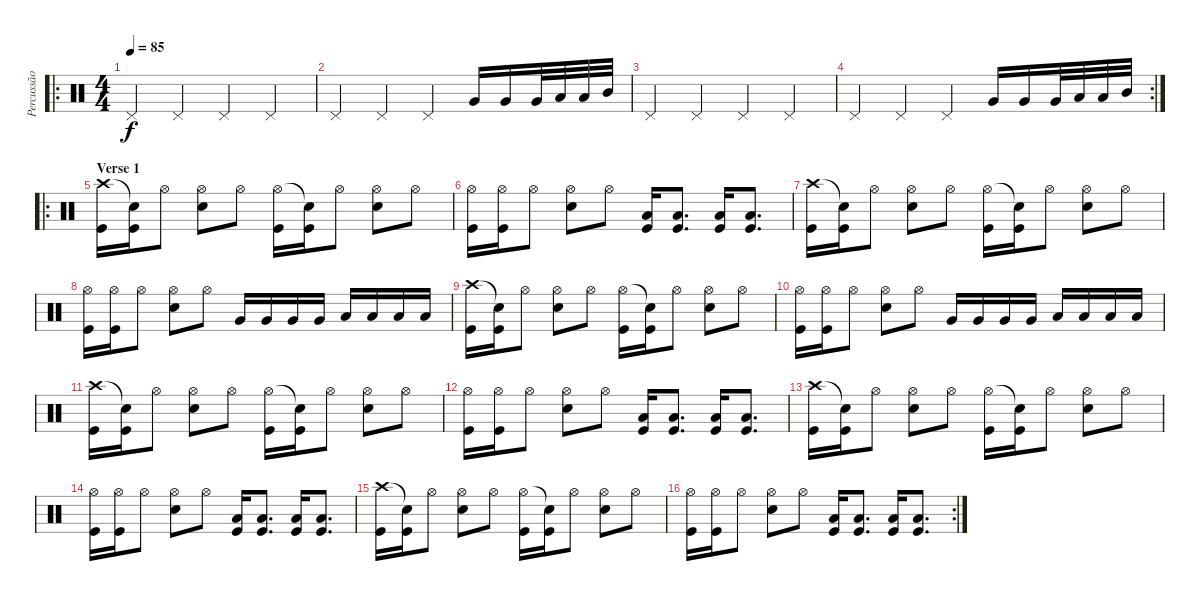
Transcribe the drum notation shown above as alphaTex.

\track ("Percussão" "Percussão") {instrument percussion}
\staff {score}
\articulation defaults
\ro
\ts (4 4)
\tempo 85
\clef neutral
\ks c "Pedal Hi-Hat (hit)".4{dy f} "Pedal Hi-Hat (hit)".4 "Pedal Hi-Hat (hit)".4 "Pedal Hi-Hat (hit)".4
|
"Pedal Hi-Hat (hit)".4 "Pedal Hi-Hat (hit)".4 "Pedal Hi-Hat (hit)".4 "Very Low Tom (hit)".16 "Very Low Tom (hit)".16 "Very Low Tom (hit)".32 "Low Floor Tom (hit)".32 "Low Tom (hit)".32 "Mid Tom (hit)".32 |
"Pedal Hi-Hat (hit)".4 "Pedal Hi-Hat (hit)".4 "Pedal Hi-Hat (hit)".4 "Pedal Hi-Hat (hit)".4 |
\rc 2 "Pedal Hi-Hat (hit)".4 "Pedal Hi-Hat (hit)".4 "Pedal Hi-Hat (hit)".4 "Very Low Tom (hit)".16 "Very Low Tom (hit)".16 "Very Low Tom (hit)".32 "Low Floor Tom (hit)".32 "Low Tom (hit)".32 "Mid Tom (hit)".32
|
\ro
\section ("" "Verse 1")
("Crash high (hit)" "Kick (hit)").16 ("Snare (hit)"{t} "Kick (hit)").16 "Hi-Hat (open)".8 ("Hi-Hat (open)" "Snare (hit) 2").8 "Hi-Hat (open)".8 ("Hi-Hat (open)" "Kick (hit)").16 ("Snare (hit)"{t} "Kick (hit)").16 "Hi-Hat (open)".8 ("Hi-Hat (open)" "Snare (hit) 2").8 "Hi-Hat (open)".8 |
("Hi-Hat (open)" "Kick (hit)").16 ("Hi-Hat (open)" "Kick (hit)").16 "Hi-Hat (open)".8 ("Hi-Hat (open)" "Snare (hit) 2").8 "Hi-Hat (open)".8 ("Low Floor Tom (hit)" "Kick (hit)").16{bd 480} ("Low Floor Tom (hit)" "Kick (hit)").8{d bd 480} ("Low Floor Tom (hit)" "Kick (hit)").16{bd 480} ("Low Floor Tom (hit)" "Kick (hit)").8{d bd 480} |
("Crash high (hit)" "Kick (hit)").16 ("Snare (hit)"{t} "Kick (hit)").16 "Hi-Hat (open)".8 ("Hi-Hat (open)" "Snare (hit) 2").8 "Hi-Hat (open)".8 ("Hi-Hat (open)" "Kick (hit)").16 ("Snare (hit)"{t} "Kick (hit)").16 "Hi-Hat (open)".8 ("Hi-Hat (open)" "Snare (hit) 2").8 "Hi-Hat (open)".8 |
("Hi-Hat (open)" "Kick (hit)").16 ("Hi-Hat (open)" "Kick (hit)").16 "Hi-Hat (open)".8 ("Hi-Hat (open)" "Snare (hit) 2").8 "Hi-Hat (open)".8 "Very Low Tom (hit)".16 "Very Low Tom (hit)".16 "Very Low Tom (hit)".16 "Very Low Tom (hit)".16 "Low Floor Tom (hit)".16 "Low Floor Tom (hit)".16 "Low Floor Tom (hit)".16 "Low Floor Tom (hit)".16 |
("Crash high (hit)" "Kick (hit)").16 ("Snare (hit)"{t} "Kick (hit)").16 "Hi-Hat (open)".8 ("Hi-Hat (open)" "Snare (hit) 2").8 "Hi-Hat (open)".8 ("Hi-Hat (open)" "Kick (hit)").16 ("Snare (hit)"{t} "Kick (hit)").16 "Hi-Hat (open)".8 ("Hi-Hat (open)" "Snare (hit) 2").8 "Hi-Hat (open)".8 |
("Hi-Hat (open)" "Kick (hit)").16 ("Hi-Hat (open)" "Kick (hit)").16 "Hi-Hat (open)".8 ("Hi-Hat (open)" "Snare (hit) 2").8 "Hi-Hat (open)".8 "Very Low Tom (hit)".16 "Very Low Tom (hit)".16 "Very Low Tom (hit)".16 "Very Low Tom (hit)".16 "Low Floor Tom (hit)".16 "Low Floor Tom (hit)".16 "Low Floor Tom (hit)".16 "Low Floor Tom (hit)".16 |
("Crash high (hit)" "Kick (hit)").16 ("Snare (hit)"{t} "Kick (hit)").16 "Hi-Hat (open)".8 ("Hi-Hat (open)" "Snare (hit) 2").8 "Hi-Hat (open)".8 ("Hi-Hat (open)" "Kick (hit)").16 ("Snare (hit)"{t} "Kick (hit)").16 "Hi-Hat (open)".8 ("Hi-Hat (open)" "Snare (hit) 2").8 "Hi-Hat (open)".8 |
("Hi-Hat (open)" "Kick (hit)").16 ("Hi-Hat (open)" "Kick (hit)").16 "Hi-Hat (open)".8 ("Hi-Hat (open)" "Snare (hit) 2").8 "Hi-Hat (open)".8 ("Low Floor Tom (hit)" "Kick (hit)").16{bd 480} ("Low Floor Tom (hit)" "Kick (hit)").8{d bd 480} ("Low Floor Tom (hit)" "Kick (hit)").16{bd 480} ("Low Floor Tom (hit)" "Kick (hit)").8{d bd 480} |
("Crash high (hit)" "Kick (hit)").16 ("Snare (hit)"{t} "Kick (hit)").16 "Hi-Hat (open)".8 ("Hi-Hat (open)" "Snare (hit) 2").8 "Hi-Hat (open)".8 ("Hi-Hat (open)" "Kick (hit)").16 ("Snare (hit)"{t} "Kick (hit)").16 "Hi-Hat (open)".8 ("Hi-Hat (open)" "Snare (hit) 2").8 "Hi-Hat (open)".8 |
("Hi-Hat (open)" "Kick (hit)").16 ("Hi-Hat (open)" "Kick (hit)").16 "Hi-Hat (open)".8 ("Hi-Hat (open)" "Snare (hit) 2").8 "Hi-Hat (open)".8 ("Low Floor Tom (hit)" "Kick (hit)").16{bd 480} ("Low Floor Tom (hit)" "Kick (hit)").8{d bd 480} ("Low Floor Tom (hit)" "Kick (hit)").16{bd 480} ("Low Floor Tom (hit)" "Kick (hit)").8{d bd 480} |
("Crash high (hit)" "Kick (hit)").16 ("Snare (hit)"{t} "Kick (hit)").16 "Hi-Hat (open)".8 ("Hi-Hat (open)" "Snare (hit) 2").8 "Hi-Hat (open)".8 ("Hi-Hat (open)" "Kick (hit)").16 ("Snare (hit)"{t} "Kick (hit)").16 "Hi-Hat (open)".8 ("Hi-Hat (open)" "Snare (hit) 2").8 "Hi-Hat (open)".8 |
\rc 2
("Hi-Hat (open)" "Kick (hit)").16 ("Hi-Hat (open)" "Kick (hit)").16 "Hi-Hat (open)".8 ("Hi-Hat (open)" "Snare (hit) 2").8 "Hi-Hat (open)".8 ("Low Floor Tom (hit)" "Kick (hit)").16{bd 480} ("Low Floor Tom (hit)" "Kick (hit)").8{d bd 480} ("Low Floor Tom (hit)" "Kick (hit)").16{bd 480} ("Low Floor Tom (hit)" "Kick (hit)").8{d bd 480}
